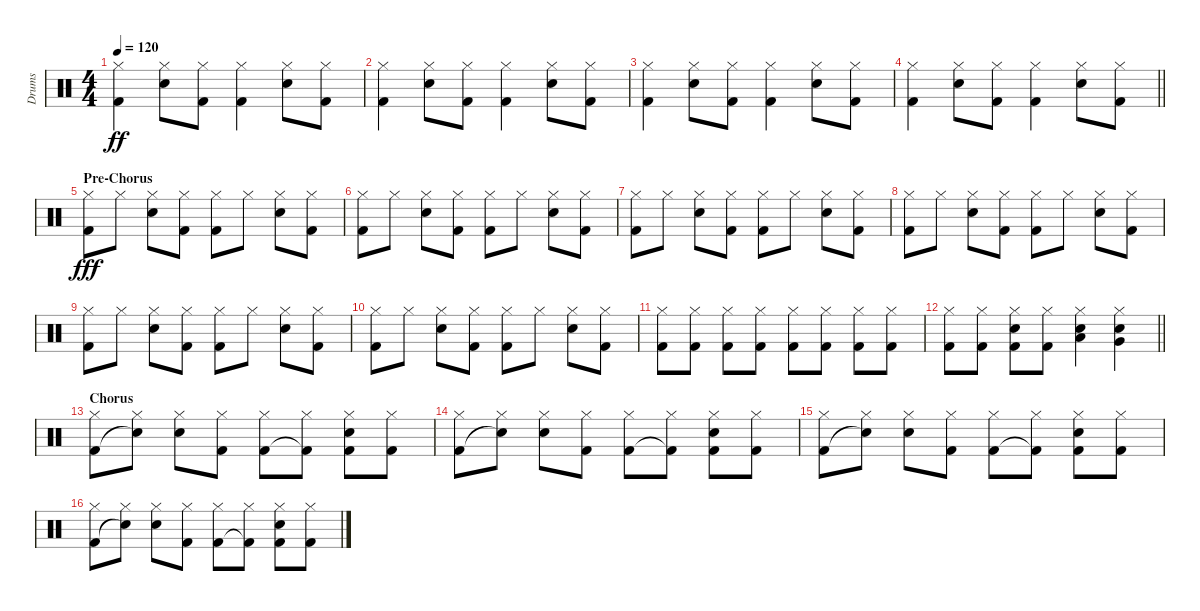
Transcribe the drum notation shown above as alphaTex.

\track ("Drums" "Drums") {instrument percussion}
\staff {score}
\articulation defaults
\ts (4 4)
\tempo 120
\clef neutral
\ks c
("Hi-Hat (closed)" "Kick (hit) 2").4{dy ff} ("Hi-Hat (closed)" "Snare (hit) 2").8 ("Hi-Hat (closed)" "Kick (hit) 2").8 ("Hi-Hat (closed)" "Kick (hit) 2").4 ("Hi-Hat (closed)" "Snare (hit) 2").8 ("Hi-Hat (closed)" "Kick (hit) 2").8 |
("Hi-Hat (closed)" "Kick (hit) 2").4 ("Hi-Hat (closed)" "Snare (hit) 2").8 ("Hi-Hat (closed)" "Kick (hit) 2").8 ("Hi-Hat (closed)" "Kick (hit) 2").4 ("Hi-Hat (closed)" "Snare (hit) 2").8 ("Hi-Hat (closed)" "Kick (hit) 2").8 |
("Hi-Hat (closed)" "Kick (hit) 2").4 ("Hi-Hat (closed)" "Snare (hit) 2").8 ("Hi-Hat (closed)" "Kick (hit) 2").8 ("Hi-Hat (closed)" "Kick (hit) 2").4 ("Hi-Hat (closed)" "Snare (hit) 2").8 ("Hi-Hat (closed)" "Kick (hit) 2").8 |
\barLineRight lightlight
("Hi-Hat (closed)" "Kick (hit) 2").4 ("Hi-Hat (closed)" "Snare (hit) 2").8 ("Hi-Hat (closed)" "Kick (hit) 2").8 ("Hi-Hat (closed)" "Kick (hit) 2").4 ("Hi-Hat (closed)" "Snare (hit) 2").8 ("Hi-Hat (closed)" "Kick (hit) 2").8 |
\section ("" "Pre-Chorus")
("Hi-Hat (closed)" "Kick (hit) 2").8{dy fff} "Hi-Hat (closed)".8 ("Hi-Hat (closed)" "Snare (hit) 2").8 ("Hi-Hat (closed)" "Kick (hit) 2").8 ("Hi-Hat (closed)" "Kick (hit) 2").8 "Hi-Hat (closed)".8 ("Hi-Hat (closed)" "Snare (hit) 2").8 ("Hi-Hat (closed)" "Kick (hit) 2").8 |
("Hi-Hat (closed)" "Kick (hit) 2").8 "Hi-Hat (closed)".8 ("Hi-Hat (closed)" "Snare (hit) 2").8 ("Hi-Hat (closed)" "Kick (hit) 2").8 ("Hi-Hat (closed)" "Kick (hit) 2").8 "Hi-Hat (closed)".8 ("Hi-Hat (closed)" "Snare (hit) 2").8 ("Hi-Hat (closed)" "Kick (hit) 2").8 |
("Hi-Hat (closed)" "Kick (hit) 2").8 "Hi-Hat (closed)".8 ("Hi-Hat (closed)" "Snare (hit) 2").8 ("Hi-Hat (closed)" "Kick (hit) 2").8 ("Hi-Hat (closed)" "Kick (hit) 2").8 "Hi-Hat (closed)".8 ("Hi-Hat (closed)" "Snare (hit) 2").8 ("Hi-Hat (closed)" "Kick (hit) 2").8 |
("Hi-Hat (closed)" "Kick (hit) 2").8 "Hi-Hat (closed)".8 ("Hi-Hat (closed)" "Snare (hit) 2").8 ("Hi-Hat (closed)" "Kick (hit) 2").8 ("Hi-Hat (closed)" "Kick (hit) 2").8 "Hi-Hat (closed)".8 ("Hi-Hat (closed)" "Snare (hit) 2").8 ("Hi-Hat (closed)" "Kick (hit) 2").8 |
("Hi-Hat (closed)" "Kick (hit) 2").8 "Hi-Hat (closed)".8 ("Hi-Hat (closed)" "Snare (hit) 2").8 ("Hi-Hat (closed)" "Kick (hit) 2").8 ("Hi-Hat (closed)" "Kick (hit) 2").8 "Hi-Hat (closed)".8 ("Hi-Hat (closed)" "Snare (hit) 2").8 ("Hi-Hat (closed)" "Kick (hit) 2").8 |
("Hi-Hat (closed)" "Kick (hit) 2").8 "Hi-Hat (closed)".8 ("Hi-Hat (closed)" "Snare (hit) 2").8 ("Hi-Hat (closed)" "Kick (hit) 2").8 ("Hi-Hat (closed)" "Kick (hit) 2").8 "Hi-Hat (closed)".8 ("Hi-Hat (closed)" "Snare (hit) 2").8 ("Hi-Hat (closed)" "Kick (hit) 2").8 |
("Hi-Hat (closed)" "Kick (hit) 2").8 ("Hi-Hat (closed)" "Kick (hit) 2").8 ("Hi-Hat (closed)" "Kick (hit) 2").8 ("Hi-Hat (closed)" "Kick (hit) 2").8 ("Hi-Hat (closed)" "Kick (hit) 2").8 ("Hi-Hat (closed)" "Kick (hit) 2").8 ("Hi-Hat (closed)" "Kick (hit) 2").8 ("Hi-Hat (closed)" "Kick (hit) 2").8 |
\barLineRight lightlight
("Hi-Hat (closed)" "Kick (hit) 2").8 ("Hi-Hat (closed)" "Kick (hit) 2").8 ("Hi-Hat (closed)" "Snare (hit) 2" "Kick (hit) 2").8 ("Hi-Hat (closed)" "Kick (hit) 2").8 ("Hi-Hat (closed)" "Snare (hit) 2" "Low Tom (hit)").4 ("Hi-Hat (closed)" "Snare (hit) 2" "Very Low Tom (hit)").4 |
\section ("" "Chorus")
("Hi-Hat (closed)" "Kick (hit) 2").8 ("Hi-Hat (closed)" "Snare (hit)"{t}).8 ("Hi-Hat (closed)" "Snare (hit) 2").8 ("Hi-Hat (closed)" "Kick (hit) 2").8 ("Hi-Hat (closed)" "Kick (hit) 2").8 ("Hi-Hat (closed)" "Kick (hit) 2"{t}).8 ("Hi-Hat (closed)" "Snare (hit) 2" "Kick (hit) 2").8 ("Hi-Hat (closed)" "Kick (hit) 2").8 |
("Hi-Hat (closed)" "Kick (hit) 2").8 ("Hi-Hat (closed)" "Snare (hit)"{t}).8 ("Hi-Hat (closed)" "Snare (hit) 2").8 ("Hi-Hat (closed)" "Kick (hit) 2").8 ("Hi-Hat (closed)" "Kick (hit) 2").8 ("Hi-Hat (closed)" "Kick (hit) 2"{t}).8 ("Hi-Hat (closed)" "Snare (hit) 2" "Kick (hit) 2").8 ("Hi-Hat (closed)" "Kick (hit) 2").8 |
("Hi-Hat (closed)" "Kick (hit) 2").8 ("Hi-Hat (closed)" "Snare (hit)"{t}).8 ("Hi-Hat (closed)" "Snare (hit) 2").8 ("Hi-Hat (closed)" "Kick (hit) 2").8 ("Hi-Hat (closed)" "Kick (hit) 2").8 ("Hi-Hat (closed)" "Kick (hit) 2"{t}).8 ("Hi-Hat (closed)" "Snare (hit) 2" "Kick (hit) 2").8 ("Hi-Hat (closed)" "Kick (hit) 2").8 |
("Hi-Hat (closed)" "Kick (hit) 2").8 ("Hi-Hat (closed)" "Snare (hit)"{t}).8 ("Hi-Hat (closed)" "Snare (hit) 2").8 ("Hi-Hat (closed)" "Kick (hit) 2").8 ("Hi-Hat (closed)" "Kick (hit) 2").8 ("Hi-Hat (closed)" "Kick (hit) 2"{t}).8 ("Hi-Hat (closed)" "Snare (hit) 2" "Kick (hit) 2").8 ("Hi-Hat (closed)" "Kick (hit) 2").8
